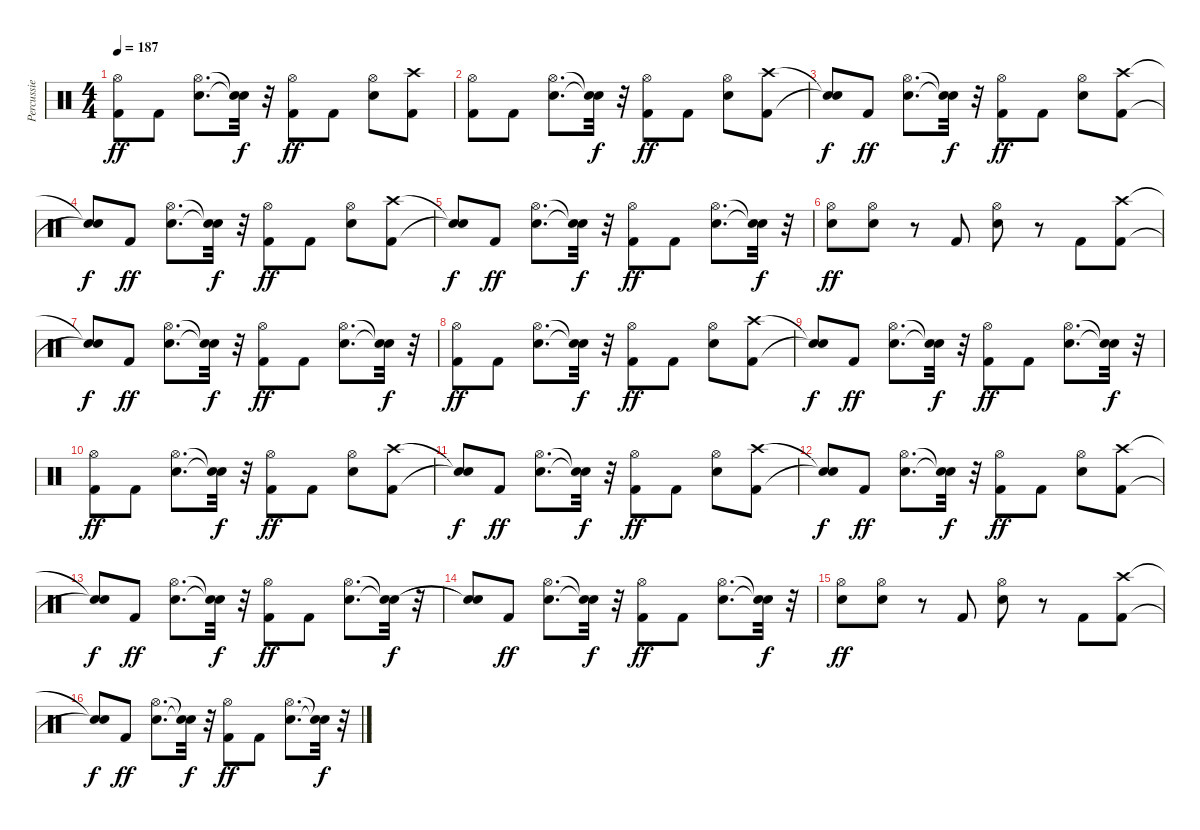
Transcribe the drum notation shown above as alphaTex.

\track ("Percussie" "Percussie") {instrument percussion}
\staff {score}
\articulation defaults
\ts (4 4)
\tempo 187
\clef neutral
\ks c
("Kick (hit) 2" "Hi-Hat (open)").8{dy ff} "Kick (hit) 2".8 ("Snare (hit) 2" "Hi-Hat (open)").8{d} ("Snare (hit)"{t} "Snare (hit)"{t}).32{dy f} r.32 ("Kick (hit) 2" "Hi-Hat (open)").8{dy ff} "Kick (hit) 2".8 ("Snare (hit) 2" "Hi-Hat (open)").8 ("Kick (hit) 2" "Crash high (hit)").8 |
("Kick (hit) 2" "Hi-Hat (open)").8 "Kick (hit) 2".8 ("Snare (hit) 2" "Hi-Hat (open)").8{d} ("Snare (hit)"{t} "Snare (hit)"{t}).32{dy f} r.32 ("Kick (hit) 2" "Hi-Hat (open)").8{dy ff} "Kick (hit) 2".8 ("Snare (hit) 2" "Hi-Hat (open)").8 ("Kick (hit) 2" "Crash high (hit)").8 |
("Snare (hit)"{t} "Snare (hit)"{t}).8{dy f} "Kick (hit) 2".8{dy ff} ("Snare (hit) 2" "Hi-Hat (open)").8{d} ("Snare (hit)"{t} "Snare (hit)"{t}).32{dy f} r.32 ("Kick (hit) 2" "Hi-Hat (open)").8{dy ff} "Kick (hit) 2".8 ("Snare (hit) 2" "Hi-Hat (open)").8 ("Kick (hit) 2" "Crash high (hit)").8 |
("Snare (hit)"{t} "Snare (hit)"{t}).8{dy f} "Kick (hit) 2".8{dy ff} ("Snare (hit) 2" "Hi-Hat (open)").8{d} ("Snare (hit)"{t} "Snare (hit)"{t}).32{dy f} r.32 ("Kick (hit) 2" "Hi-Hat (open)").8{dy ff} "Kick (hit) 2".8 ("Snare (hit) 2" "Hi-Hat (open)").8 ("Kick (hit) 2" "Crash high (hit)").8 |
("Snare (hit)"{t} "Snare (hit)"{t}).8{dy f} "Kick (hit) 2".8{dy ff} ("Snare (hit) 2" "Hi-Hat (open)").8{d} ("Snare (hit)"{t} "Snare (hit)"{t}).32{dy f} r.32 ("Kick (hit) 2" "Hi-Hat (open)").8{dy ff} "Kick (hit) 2".8 ("Snare (hit) 2" "Hi-Hat (open)").8{d} ("Snare (hit)"{t} "Snare (hit)"{t}).32{dy f} r.32 |
("Snare (hit) 2" "Hi-Hat (open)").8{dy ff} ("Snare (hit) 2" "Hi-Hat (open)").8 r.8 "Kick (hit) 2".8 ("Snare (hit) 2" "Hi-Hat (open)").8 r.8 "Kick (hit) 2".8 ("Kick (hit) 2" "Crash high (hit)").8 |
("Snare (hit)"{t} "Snare (hit)"{t}).8{dy f} "Kick (hit) 2".8{dy ff} ("Snare (hit) 2" "Hi-Hat (open)").8{d} ("Snare (hit)"{t} "Snare (hit)"{t}).32{dy f} r.32 ("Kick (hit) 2" "Hi-Hat (open)").8{dy ff} "Kick (hit) 2".8 ("Snare (hit) 2" "Hi-Hat (open)").8{d} ("Snare (hit)"{t} "Snare (hit)"{t}).32{dy f} r.32 |
("Kick (hit) 2" "Hi-Hat (open)").8{dy ff} "Kick (hit) 2".8 ("Snare (hit) 2" "Hi-Hat (open)").8{d} ("Snare (hit)"{t} "Snare (hit)"{t}).32{dy f} r.32 ("Kick (hit) 2" "Hi-Hat (open)").8{dy ff} "Kick (hit) 2".8 ("Snare (hit) 2" "Hi-Hat (open)").8 ("Kick (hit) 2" "Crash high (hit)").8 |
("Snare (hit)"{t} "Snare (hit)"{t}).8{dy f} "Kick (hit) 2".8{dy ff} ("Snare (hit) 2" "Hi-Hat (open)").8{d} ("Snare (hit)"{t} "Snare (hit)"{t}).32{dy f} r.32 ("Kick (hit) 2" "Hi-Hat (open)").8{dy ff} "Kick (hit) 2".8 ("Snare (hit) 2" "Hi-Hat (open)").8{d} ("Snare (hit)"{t} "Snare (hit)"{t}).32{dy f} r.32 |
("Kick (hit) 2" "Hi-Hat (open)").8{dy ff} "Kick (hit) 2".8 ("Snare (hit) 2" "Hi-Hat (open)").8{d} ("Snare (hit)"{t} "Snare (hit)"{t}).32{dy f} r.32 ("Kick (hit) 2" "Hi-Hat (open)").8{dy ff} "Kick (hit) 2".8 ("Snare (hit) 2" "Hi-Hat (open)").8 ("Kick (hit) 2" "Crash high (hit)").8 |
("Snare (hit)"{t} "Snare (hit)"{t}).8{dy f} "Kick (hit) 2".8{dy ff} ("Snare (hit) 2" "Hi-Hat (open)").8{d} ("Snare (hit)"{t} "Snare (hit)"{t}).32{dy f} r.32 ("Kick (hit) 2" "Hi-Hat (open)").8{dy ff} "Kick (hit) 2".8 ("Snare (hit) 2" "Hi-Hat (open)").8 ("Kick (hit) 2" "Crash high (hit)").8 |
("Snare (hit)"{t} "Snare (hit)"{t}).8{dy f} "Kick (hit) 2".8{dy ff} ("Snare (hit) 2" "Hi-Hat (open)").8{d} ("Snare (hit)"{t} "Snare (hit)"{t}).32{dy f} r.32 ("Kick (hit) 2" "Hi-Hat (open)").8{dy ff} "Kick (hit) 2".8 ("Snare (hit) 2" "Hi-Hat (open)").8 ("Kick (hit) 2" "Crash high (hit)").8 |
("Snare (hit)"{t} "Snare (hit)"{t}).8{dy f} "Kick (hit) 2".8{dy ff} ("Snare (hit) 2" "Hi-Hat (open)").8{d} ("Snare (hit)"{t} "Snare (hit)"{t}).32{dy f} r.32 ("Kick (hit) 2" "Hi-Hat (open)").8{dy ff} "Kick (hit) 2".8 ("Snare (hit) 2" "Hi-Hat (open)").8{d} ("Snare (hit)"{t} "Snare (hit)"{t}).32{dy f} r.32 |
("Snare (hit)"{t} "Snare (hit)"{t}).8 "Kick (hit) 2".8{dy ff} ("Snare (hit) 2" "Hi-Hat (open)").8{d} ("Snare (hit)"{t} "Snare (hit)"{t}).32{dy f} r.32 ("Kick (hit) 2" "Hi-Hat (open)").8{dy ff} "Kick (hit) 2".8 ("Snare (hit) 2" "Hi-Hat (open)").8{d} ("Snare (hit)"{t} "Snare (hit)"{t}).32{dy f} r.32 |
("Snare (hit) 2" "Hi-Hat (open)").8{dy ff} ("Snare (hit) 2" "Hi-Hat (open)").8 r.8 "Kick (hit) 2".8 ("Snare (hit) 2" "Hi-Hat (open)").8 r.8 "Kick (hit) 2".8 ("Kick (hit) 2" "Crash high (hit)").8 |
("Snare (hit)"{t} "Snare (hit)"{t}).8{dy f} "Kick (hit) 2".8{dy ff} ("Snare (hit) 2" "Hi-Hat (open)").8{d} ("Snare (hit)"{t} "Snare (hit)"{t}).32{dy f} r.32 ("Kick (hit) 2" "Hi-Hat (open)").8{dy ff} "Kick (hit) 2".8 ("Snare (hit) 2" "Hi-Hat (open)").8{d} ("Snare (hit)"{t} "Snare (hit)"{t}).32{dy f} r.32
